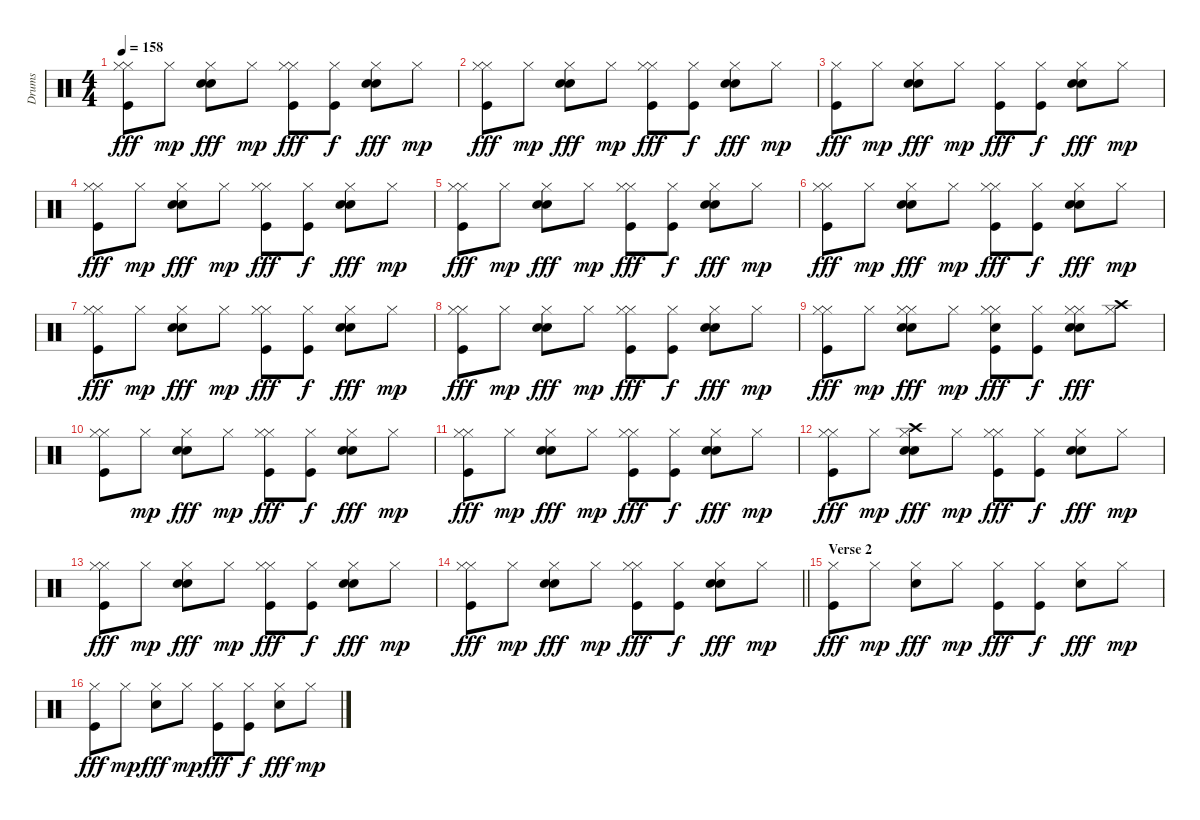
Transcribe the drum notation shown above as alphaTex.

\track ("Drums" "Drums") {instrument percussion}
\staff {score}
\articulation defaults
\ts (4 4)
\tempo 158
\clef neutral
\ks c
("Hi-Hat (closed)" "Kick (hit)" "Hi-Hat (closed)").8{dy fff} "Hi-Hat (closed)".8{dy mp} ("Snare (hit) 2" "Hi-Hat (closed)" "Electric Snare (hit)").8{dy fff} "Hi-Hat (closed)".8{dy mp} ("Hi-Hat (closed)" "Kick (hit)" "Hi-Hat (closed)").8{dy fff} ("Hi-Hat (closed)" "Kick (hit)").8{dy f} ("Snare (hit) 2" "Hi-Hat (closed)" "Electric Snare (hit)").8{dy fff} "Hi-Hat (closed)".8{dy mp} |
("Hi-Hat (closed)" "Kick (hit)" "Hi-Hat (closed)").8{dy fff} "Hi-Hat (closed)".8{dy mp} ("Snare (hit) 2" "Hi-Hat (closed)" "Electric Snare (hit)").8{dy fff} "Hi-Hat (closed)".8{dy mp} ("Hi-Hat (closed)" "Kick (hit)" "Hi-Hat (closed)").8{dy fff} ("Hi-Hat (closed)" "Kick (hit)").8{dy f} ("Snare (hit) 2" "Hi-Hat (closed)" "Electric Snare (hit)").8{dy fff} "Hi-Hat (closed)".8{dy mp} |
("Hi-Hat (closed)" "Kick (hit)").8{dy fff} "Hi-Hat (closed)".8{dy mp} ("Snare (hit) 2" "Hi-Hat (closed)" "Electric Snare (hit)").8{dy fff} "Hi-Hat (closed)".8{dy mp} ("Hi-Hat (closed)" "Kick (hit)").8{dy fff} ("Hi-Hat (closed)" "Kick (hit)").8{dy f} ("Snare (hit) 2" "Hi-Hat (closed)" "Electric Snare (hit)").8{dy fff} "Hi-Hat (closed)".8{dy mp} |
("Hi-Hat (closed)" "Kick (hit)" "Hi-Hat (closed)").8{dy fff} "Hi-Hat (closed)".8{dy mp} ("Snare (hit) 2" "Hi-Hat (closed)" "Electric Snare (hit)").8{dy fff} "Hi-Hat (closed)".8{dy mp} ("Hi-Hat (closed)" "Kick (hit)" "Hi-Hat (closed)").8{dy fff} ("Hi-Hat (closed)" "Kick (hit)").8{dy f} ("Snare (hit) 2" "Hi-Hat (closed)" "Electric Snare (hit)").8{dy fff} "Hi-Hat (closed)".8{dy mp} |
("Hi-Hat (closed)" "Kick (hit)" "Hi-Hat (closed)").8{dy fff} "Hi-Hat (closed)".8{dy mp} ("Snare (hit) 2" "Hi-Hat (closed)" "Electric Snare (hit)").8{dy fff} "Hi-Hat (closed)".8{dy mp} ("Hi-Hat (closed)" "Kick (hit)" "Hi-Hat (closed)").8{dy fff} ("Hi-Hat (closed)" "Kick (hit)").8{dy f} ("Snare (hit) 2" "Hi-Hat (closed)" "Electric Snare (hit)").8{dy fff} "Hi-Hat (closed)".8{dy mp} |
("Hi-Hat (closed)" "Kick (hit)" "Hi-Hat (closed)").8{dy fff} "Hi-Hat (closed)".8{dy mp} ("Snare (hit) 2" "Hi-Hat (closed)" "Electric Snare (hit)").8{dy fff} "Hi-Hat (closed)".8{dy mp} ("Hi-Hat (closed)" "Kick (hit)" "Hi-Hat (closed)").8{dy fff} ("Hi-Hat (closed)" "Kick (hit)").8{dy f} ("Snare (hit) 2" "Hi-Hat (closed)" "Electric Snare (hit)").8{dy fff} "Hi-Hat (closed)".8{dy mp} |
("Hi-Hat (closed)" "Kick (hit)" "Hi-Hat (closed)").8{dy fff} "Hi-Hat (closed)".8{dy mp} ("Snare (hit) 2" "Hi-Hat (closed)" "Electric Snare (hit)").8{dy fff} "Hi-Hat (closed)".8{dy mp} ("Hi-Hat (closed)" "Kick (hit)" "Hi-Hat (closed)").8{dy fff} ("Hi-Hat (closed)" "Kick (hit)").8{dy f} ("Snare (hit) 2" "Hi-Hat (closed)" "Electric Snare (hit)").8{dy fff} "Hi-Hat (closed)".8{dy mp} |
("Hi-Hat (closed)" "Kick (hit)" "Hi-Hat (closed)").8{dy fff} "Hi-Hat (closed)".8{dy mp} ("Snare (hit) 2" "Hi-Hat (closed)" "Electric Snare (hit)").8{dy fff} "Hi-Hat (closed)".8{dy mp} ("Hi-Hat (closed)" "Kick (hit)" "Hi-Hat (closed)").8{dy fff} ("Hi-Hat (closed)" "Kick (hit)").8{dy f} ("Snare (hit) 2" "Hi-Hat (closed)" "Electric Snare (hit)").8{dy fff} "Hi-Hat (closed)".8{dy mp} |
("Hi-Hat (closed)" "Kick (hit)" "Hi-Hat (closed)").8{dy fff} "Hi-Hat (closed)".8{dy mp} ("Snare (hit) 2" "Hi-Hat (closed)" "Hi-Hat (closed)" "Electric Snare (hit)").8{dy fff} "Hi-Hat (closed)".8{dy mp} ("Hi-Hat (closed)" "Kick (hit)" "Hi-Hat (closed)" "Electric Snare (hit)").8{dy fff} ("Hi-Hat (closed)" "Kick (hit)").8{dy f} ("Snare (hit) 2" "Hi-Hat (closed)" "Hi-Hat (closed)" "Electric Snare (hit)").8{dy fff} ("Hi-Hat (closed)" "Crash high (hit)").8 |
("Hi-Hat (closed)" "Kick (hit)" "Hi-Hat (closed)").8 "Hi-Hat (closed)".8{dy mp} ("Snare (hit) 2" "Hi-Hat (closed)" "Electric Snare (hit)").8{dy fff} "Hi-Hat (closed)".8{dy mp} ("Hi-Hat (closed)" "Kick (hit)" "Hi-Hat (closed)").8{dy fff} ("Hi-Hat (closed)" "Kick (hit)").8{dy f} ("Snare (hit) 2" "Hi-Hat (closed)" "Electric Snare (hit)").8{dy fff} "Hi-Hat (closed)".8{dy mp} |
("Hi-Hat (closed)" "Kick (hit)" "Hi-Hat (closed)").8{dy fff} "Hi-Hat (closed)".8{dy mp} ("Snare (hit) 2" "Hi-Hat (closed)" "Electric Snare (hit)").8{dy fff} "Hi-Hat (closed)".8{dy mp} ("Hi-Hat (closed)" "Kick (hit)" "Hi-Hat (closed)").8{dy fff} ("Hi-Hat (closed)" "Kick (hit)").8{dy f} ("Snare (hit) 2" "Hi-Hat (closed)" "Electric Snare (hit)").8{dy fff} "Hi-Hat (closed)".8{dy mp} |
("Hi-Hat (closed)" "Kick (hit)" "Hi-Hat (closed)").8{dy fff} "Hi-Hat (closed)".8{dy mp} ("Snare (hit) 2" "Hi-Hat (closed)" "Electric Snare (hit)" "Crash high (hit)").8{dy fff} "Hi-Hat (closed)".8{dy mp} ("Hi-Hat (closed)" "Kick (hit)" "Hi-Hat (closed)").8{dy fff} ("Hi-Hat (closed)" "Kick (hit)").8{dy f} ("Snare (hit) 2" "Hi-Hat (closed)" "Electric Snare (hit)").8{dy fff} "Hi-Hat (closed)".8{dy mp} |
("Hi-Hat (closed)" "Kick (hit)" "Hi-Hat (closed)").8{dy fff} "Hi-Hat (closed)".8{dy mp} ("Snare (hit) 2" "Hi-Hat (closed)" "Electric Snare (hit)").8{dy fff} "Hi-Hat (closed)".8{dy mp} ("Hi-Hat (closed)" "Kick (hit)" "Hi-Hat (closed)").8{dy fff} ("Hi-Hat (closed)" "Kick (hit)").8{dy f} ("Snare (hit) 2" "Hi-Hat (closed)" "Electric Snare (hit)").8{dy fff} "Hi-Hat (closed)".8{dy mp} |
\barLineRight lightlight
("Hi-Hat (closed)" "Kick (hit)" "Hi-Hat (closed)").8{dy fff} "Hi-Hat (closed)".8{dy mp} ("Snare (hit) 2" "Hi-Hat (closed)" "Electric Snare (hit)").8{dy fff} "Hi-Hat (closed)".8{dy mp} ("Hi-Hat (closed)" "Kick (hit)" "Hi-Hat (closed)").8{dy fff} ("Hi-Hat (closed)" "Kick (hit)").8{dy f} ("Snare (hit) 2" "Hi-Hat (closed)" "Electric Snare (hit)").8{dy fff} "Hi-Hat (closed)".8{dy mp} |
\section ("" "Verse 2")
("Hi-Hat (closed)" "Kick (hit)").8{dy fff} "Hi-Hat (closed)".8{dy mp} ("Snare (hit) 2" "Hi-Hat (closed)").8{dy fff} "Hi-Hat (closed)".8{dy mp} ("Hi-Hat (closed)" "Kick (hit)").8{dy fff} ("Hi-Hat (closed)" "Kick (hit)").8{dy f} ("Snare (hit) 2" "Hi-Hat (closed)").8{dy fff} "Hi-Hat (closed)".8{dy mp} |
("Hi-Hat (closed)" "Kick (hit)").8{dy fff} "Hi-Hat (closed)".8{dy mp} ("Snare (hit) 2" "Hi-Hat (closed)").8{dy fff} "Hi-Hat (closed)".8{dy mp} ("Hi-Hat (closed)" "Kick (hit)").8{dy fff} ("Hi-Hat (closed)" "Kick (hit)").8{dy f} ("Snare (hit) 2" "Hi-Hat (closed)").8{dy fff} "Hi-Hat (closed)".8{dy mp}
